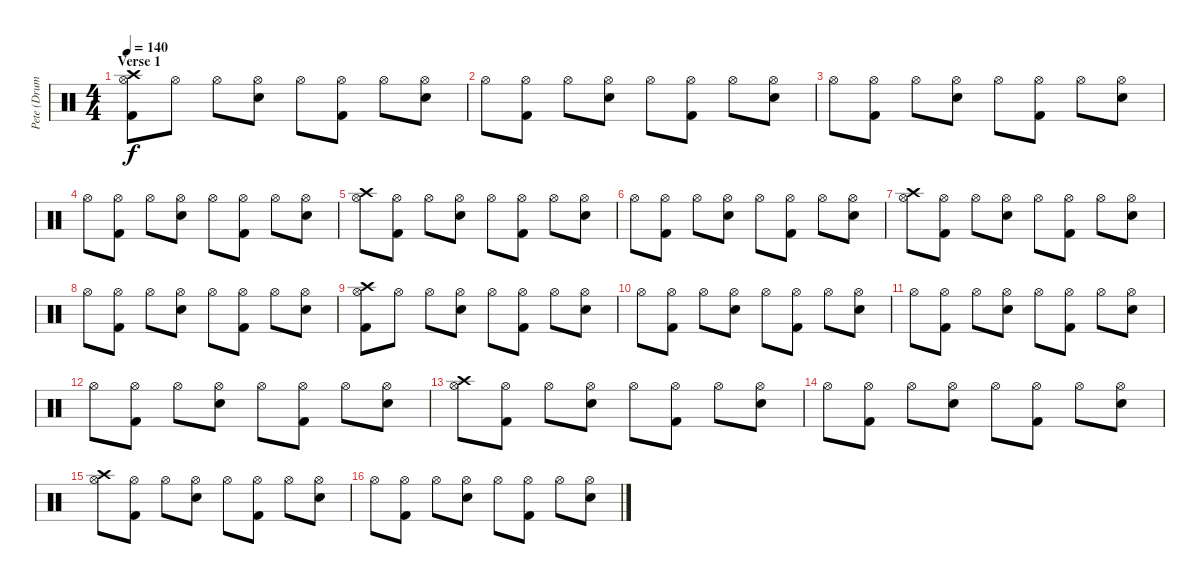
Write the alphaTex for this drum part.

\track ("Pete (Drums)" "Pete (Drum") {instrument percussion}
\staff {score}
\articulation defaults
\ts (4 4)
\section ("" "Verse 1")
\tempo 140
\clef neutral
\ks c
("Hi-Hat (open)" "Kick (hit) 2" "Crash high (hit)").8{dy f} "Hi-Hat (open)".8 "Hi-Hat (open)".8 ("Hi-Hat (open)" "Snare (hit) 2").8 "Hi-Hat (open)".8 ("Hi-Hat (open)" "Kick (hit) 2").8 "Hi-Hat (open)".8 ("Hi-Hat (open)" "Snare (hit) 2").8 |
"Hi-Hat (open)".8 ("Hi-Hat (open)" "Kick (hit) 2").8 "Hi-Hat (open)".8 ("Hi-Hat (open)" "Snare (hit) 2").8 "Hi-Hat (open)".8 ("Hi-Hat (open)" "Kick (hit) 2").8 "Hi-Hat (open)".8 ("Hi-Hat (open)" "Snare (hit) 2").8 |
"Hi-Hat (open)".8 ("Hi-Hat (open)" "Kick (hit) 2").8 "Hi-Hat (open)".8 ("Hi-Hat (open)" "Snare (hit) 2").8 "Hi-Hat (open)".8 ("Hi-Hat (open)" "Kick (hit) 2").8 "Hi-Hat (open)".8 ("Hi-Hat (open)" "Snare (hit) 2").8 |
"Hi-Hat (open)".8 ("Hi-Hat (open)" "Kick (hit) 2").8 "Hi-Hat (open)".8 ("Hi-Hat (open)" "Snare (hit) 2").8 "Hi-Hat (open)".8 ("Hi-Hat (open)" "Kick (hit) 2").8 "Hi-Hat (open)".8 ("Hi-Hat (open)" "Snare (hit) 2").8 |
("Hi-Hat (open)" "Crash high (hit)").8 ("Hi-Hat (open)" "Kick (hit) 2").8 "Hi-Hat (open)".8 ("Hi-Hat (open)" "Snare (hit) 2").8 "Hi-Hat (open)".8 ("Hi-Hat (open)" "Kick (hit) 2").8 "Hi-Hat (open)".8 ("Hi-Hat (open)" "Snare (hit) 2").8 |
"Hi-Hat (open)".8 ("Hi-Hat (open)" "Kick (hit) 2").8 "Hi-Hat (open)".8 ("Hi-Hat (open)" "Snare (hit) 2").8 "Hi-Hat (open)".8 ("Hi-Hat (open)" "Kick (hit) 2").8 "Hi-Hat (open)".8 ("Hi-Hat (open)" "Snare (hit) 2").8 |
("Hi-Hat (open)" "Crash high (hit)").8 ("Hi-Hat (open)" "Kick (hit) 2").8 "Hi-Hat (open)".8 ("Hi-Hat (open)" "Snare (hit) 2").8 "Hi-Hat (open)".8 ("Hi-Hat (open)" "Kick (hit) 2").8 "Hi-Hat (open)".8 ("Hi-Hat (open)" "Snare (hit) 2").8 |
"Hi-Hat (open)".8 ("Hi-Hat (open)" "Kick (hit) 2").8 "Hi-Hat (open)".8 ("Hi-Hat (open)" "Snare (hit) 2").8 "Hi-Hat (open)".8 ("Hi-Hat (open)" "Kick (hit) 2").8 "Hi-Hat (open)".8 ("Hi-Hat (open)" "Snare (hit) 2").8 |
("Hi-Hat (open)" "Kick (hit) 2" "Crash high (hit)").8 "Hi-Hat (open)".8 "Hi-Hat (open)".8 ("Hi-Hat (open)" "Snare (hit) 2").8 "Hi-Hat (open)".8 ("Hi-Hat (open)" "Kick (hit) 2").8 "Hi-Hat (open)".8 ("Hi-Hat (open)" "Snare (hit) 2").8 |
"Hi-Hat (open)".8 ("Hi-Hat (open)" "Kick (hit) 2").8 "Hi-Hat (open)".8 ("Hi-Hat (open)" "Snare (hit) 2").8 "Hi-Hat (open)".8 ("Hi-Hat (open)" "Kick (hit) 2").8 "Hi-Hat (open)".8 ("Hi-Hat (open)" "Snare (hit) 2").8 |
"Hi-Hat (open)".8 ("Hi-Hat (open)" "Kick (hit) 2").8 "Hi-Hat (open)".8 ("Hi-Hat (open)" "Snare (hit) 2").8 "Hi-Hat (open)".8 ("Hi-Hat (open)" "Kick (hit) 2").8 "Hi-Hat (open)".8 ("Hi-Hat (open)" "Snare (hit) 2").8 |
"Hi-Hat (open)".8 ("Hi-Hat (open)" "Kick (hit) 2").8 "Hi-Hat (open)".8 ("Hi-Hat (open)" "Snare (hit) 2").8 "Hi-Hat (open)".8 ("Hi-Hat (open)" "Kick (hit) 2").8 "Hi-Hat (open)".8 ("Hi-Hat (open)" "Snare (hit) 2").8 |
("Hi-Hat (open)" "Crash high (hit)").8 ("Hi-Hat (open)" "Kick (hit) 2").8 "Hi-Hat (open)".8 ("Hi-Hat (open)" "Snare (hit) 2").8 "Hi-Hat (open)".8 ("Hi-Hat (open)" "Kick (hit) 2").8 "Hi-Hat (open)".8 ("Hi-Hat (open)" "Snare (hit) 2").8 |
"Hi-Hat (open)".8 ("Hi-Hat (open)" "Kick (hit) 2").8 "Hi-Hat (open)".8 ("Hi-Hat (open)" "Snare (hit) 2").8 "Hi-Hat (open)".8 ("Hi-Hat (open)" "Kick (hit) 2").8 "Hi-Hat (open)".8 ("Hi-Hat (open)" "Snare (hit) 2").8 |
("Hi-Hat (open)" "Crash high (hit)").8 ("Hi-Hat (open)" "Kick (hit) 2").8 "Hi-Hat (open)".8 ("Hi-Hat (open)" "Snare (hit) 2").8 "Hi-Hat (open)".8 ("Hi-Hat (open)" "Kick (hit) 2").8 "Hi-Hat (open)".8 ("Hi-Hat (open)" "Snare (hit) 2").8 |
"Hi-Hat (open)".8 ("Hi-Hat (open)" "Kick (hit) 2").8 "Hi-Hat (open)".8 ("Hi-Hat (open)" "Snare (hit) 2").8 "Hi-Hat (open)".8 ("Hi-Hat (open)" "Kick (hit) 2").8 "Hi-Hat (open)".8 ("Hi-Hat (open)" "Snare (hit) 2").8
